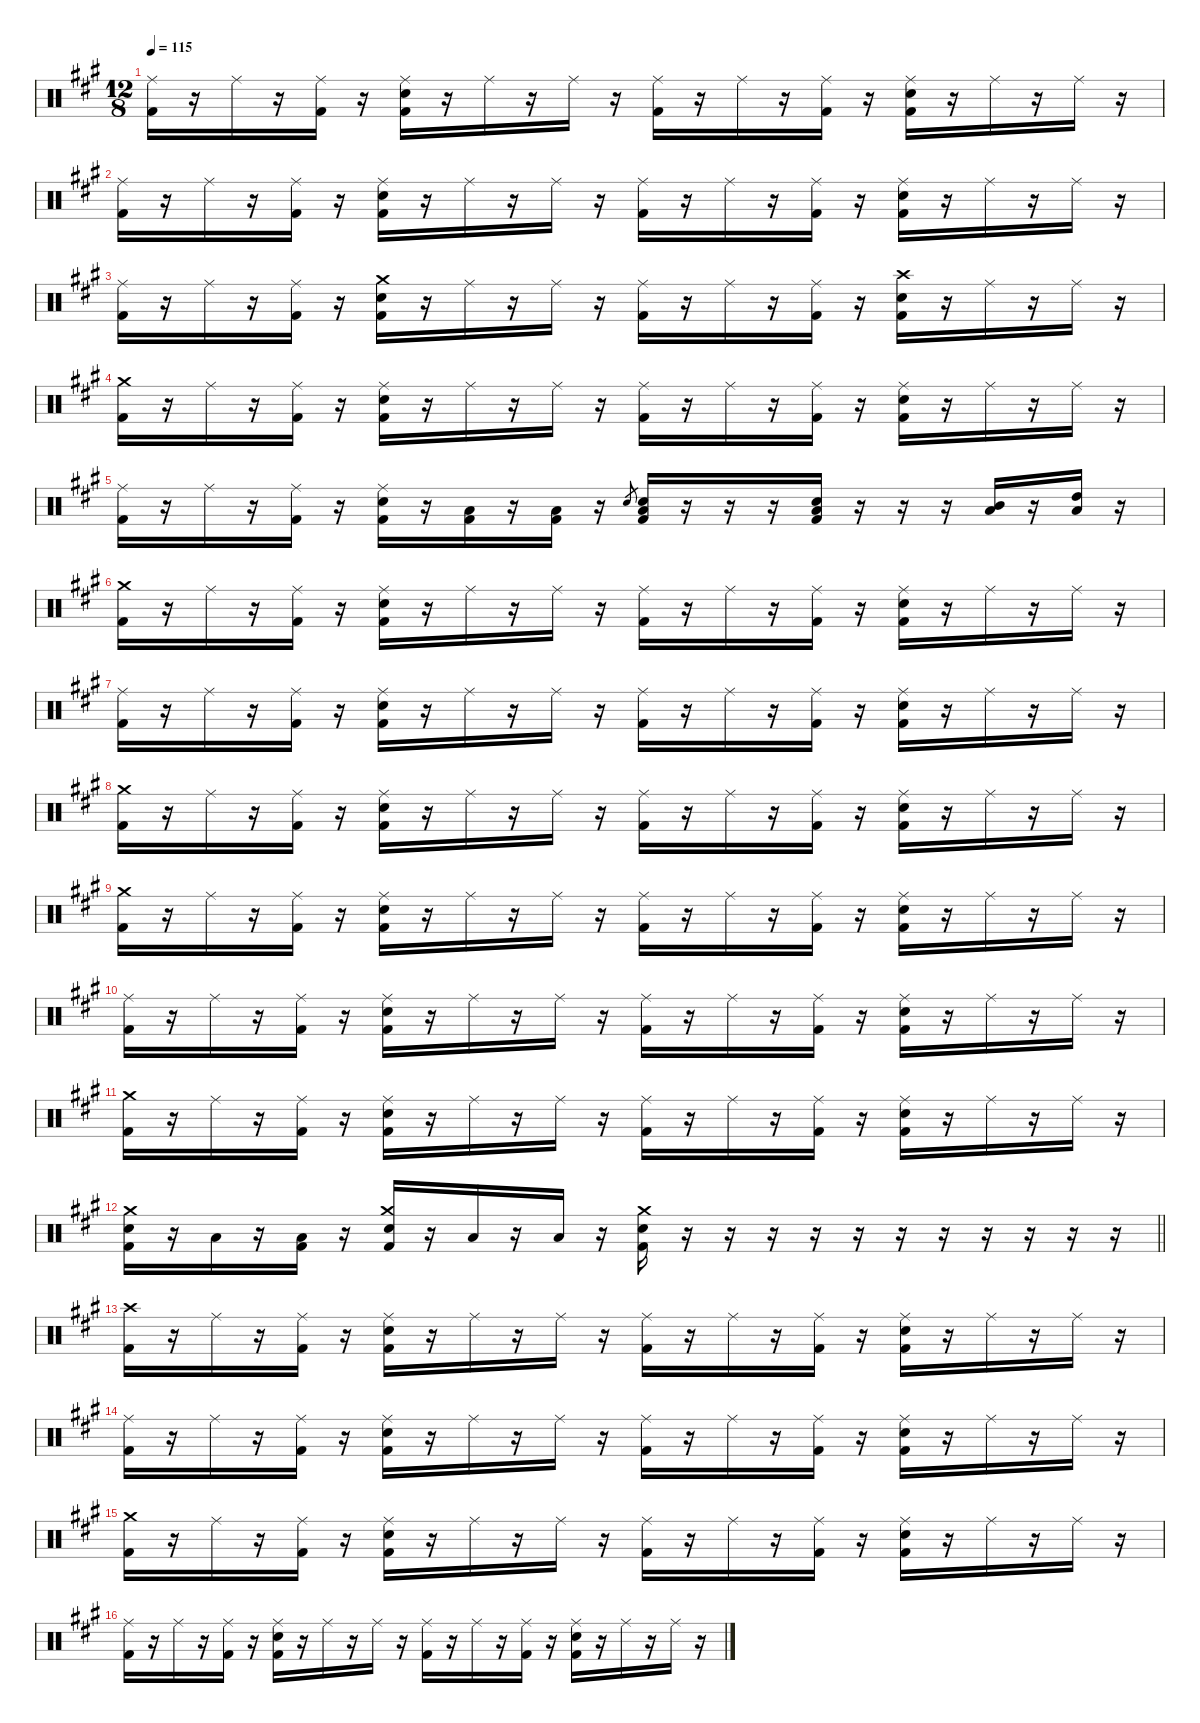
\defaultSystemsLayout 4
\hideDynamics
\bracketExtendMode nobrackets
\singleTrackTrackNamePolicy hidden
\multiTrackTrackNamePolicy hidden
\firstSystemTrackNameMode fullname
\otherSystemsTrackNameOrientation horizontal
\track ("DRUMS" "drm.") {instrument percussion}
\staff {score}
\articulation defaults
\ts (12 8)
\tempo 115
\clef neutral
\ks a
("Ride (middle)"{acc forcenatural} "Kick (hit) 2"{acc forcenatural}).16{dy f beam Down} r.16{beam Down} "Ride (middle)"{acc forcenatural}.16{dy ff beam Down} r.16{beam Down} ("Ride (middle)"{acc forcenatural} "Kick (hit) 2"{acc forcenatural}).16{beam Down} r.16{beam Down} ("Ride (middle)"{acc forcenatural} "Snare (hit) 2"{acc forcenatural} "Kick (hit) 2"{acc forcenatural}).16{dy f beam Down} r.16{beam Down} "Ride (middle)"{acc forcenatural}.16{dy ff beam Down} r.16{beam Down} "Ride (middle)"{acc forcenatural}.16{beam Down} r.16{beam Down} ("Ride (middle)"{acc forcenatural} "Kick (hit) 2"{acc forcenatural}).16{dy f beam Down} r.16{beam Down} "Ride (middle)"{acc forcenatural}.16{dy ff beam Down} r.16{beam Down} ("Ride (middle)"{acc forcenatural} "Kick (hit) 2"{acc forcenatural}).16{beam Down} r.16{beam Down} ("Ride (middle)"{acc forcenatural} "Snare (hit) 2"{acc forcenatural} "Kick (hit) 2"{acc forcenatural}).16{dy f beam Down} r.16{beam Down} "Ride (middle)"{acc forcenatural}.16{dy ff beam Down} r.16{beam Down} "Ride (middle)"{acc forcenatural}.16{beam Down} r.16{beam Down} |
("Ride (middle)"{acc forcenatural} "Kick (hit) 2"{acc forcenatural}).16{dy f beam Down} r.16{beam Down} "Ride (middle)"{acc forcenatural}.16{dy ff beam Down} r.16{beam Down} ("Ride (middle)"{acc forcenatural} "Kick (hit) 2"{acc forcenatural}).16{beam Down} r.16{beam Down} ("Ride (middle)"{acc forcenatural} "Snare (hit) 2"{acc forcenatural} "Kick (hit) 2"{acc forcenatural}).16{dy f beam Down} r.16{beam Down} "Ride (middle)"{acc forcenatural}.16{dy ff beam Down} r.16{beam Down} "Ride (middle)"{acc forcenatural}.16{beam Down} r.16{beam Down} ("Ride (middle)"{acc forcenatural} "Kick (hit) 2"{acc forcenatural}).16{dy f beam Down} r.16{beam Down} "Ride (middle)"{acc forcenatural}.16{dy ff beam Down} r.16{beam Down} ("Ride (middle)"{acc forcenatural} "Kick (hit) 2"{acc forcenatural}).16{beam Down} r.16{beam Down} ("Ride (middle)"{acc forcenatural} "Snare (hit) 2"{acc forcenatural} "Kick (hit) 2"{acc forcenatural}).16{dy f beam Down} r.16{beam Down} "Ride (middle)"{acc forcenatural}.16{dy ff beam Down} r.16{beam Down} "Ride (middle)"{acc forcenatural}.16{beam Down} r.16{beam Down} |
("Ride (middle)"{acc forcenatural} "Kick (hit) 2"{acc forcenatural}).16{dy f beam Down} r.16{beam Down} "Ride (middle)"{acc forcenatural}.16{dy ff beam Down} r.16{beam Down} ("Ride (middle)"{acc forcenatural} "Kick (hit) 2"{acc forcenatural}).16{beam Down} r.16{beam Down} ("Crash medium (hit)"{acc forcenatural} "Snare (hit) 2"{acc forcenatural} "Kick (hit) 2"{acc forcenatural}).16{dy f beam Down} r.16{beam Down} "Ride (middle)"{acc forcenatural}.16{dy ff beam Down} r.16{beam Down} "Ride (middle)"{acc forcenatural}.16{beam Down} r.16{beam Down} ("Ride (middle)"{acc forcenatural} "Kick (hit) 2"{acc forcenatural}).16{dy f beam Down} r.16{beam Down} "Ride (middle)"{acc forcenatural}.16{dy ff beam Down} r.16{beam Down} ("Ride (middle)"{acc forcenatural} "Kick (hit) 2"{acc forcenatural}).16{beam Down} r.16{beam Down} ("Crash high (hit)"{acc forcenatural} "Snare (hit) 2"{acc forcenatural} "Kick (hit) 2"{acc forcenatural}).16{dy f beam Down} r.16{beam Down} "Ride (middle)"{acc forcenatural}.16{dy ff beam Down} r.16{beam Down} "Ride (middle)"{acc forcenatural}.16{beam Down} r.16{beam Down} |
("Crash medium (hit)"{acc forcenatural} "Kick (hit) 2"{acc forcenatural}).16{dy f beam Down} r.16{beam Down} "Ride (middle)"{acc forcenatural}.16{dy ff beam Down} r.16{beam Down} ("Ride (middle)"{acc forcenatural} "Kick (hit) 2"{acc forcenatural}).16{beam Down} r.16{beam Down} ("Ride (middle)"{acc forcenatural} "Snare (hit) 2"{acc forcenatural} "Kick (hit) 2"{acc forcenatural}).16{dy f beam Down} r.16{beam Down} "Ride (middle)"{acc forcenatural}.16{dy ff beam Down} r.16{beam Down} "Ride (middle)"{acc forcenatural}.16{beam Down} r.16{beam Down} ("Ride (middle)"{acc forcenatural} "Kick (hit) 2"{acc forcenatural}).16{dy f beam Down} r.16{beam Down} "Ride (middle)"{acc forcenatural}.16{dy ff beam Down} r.16{beam Down} ("Ride (middle)"{acc forcenatural} "Kick (hit) 2"{acc forcenatural}).16{beam Down} r.16{beam Down} ("Ride (middle)"{acc forcenatural} "Snare (hit) 2"{acc forcenatural} "Kick (hit) 2"{acc forcenatural}).16{dy f beam Down} r.16{beam Down} "Ride (middle)"{acc forcenatural}.16{dy ff beam Down} r.16{beam Down} "Ride (middle)"{acc forcenatural}.16{beam Down} r.16{beam Down} |
("Ride (middle)"{acc forcenatural} "Kick (hit) 2"{acc forcenatural}).16{dy f beam Down} r.16{beam Down} "Ride (middle)"{acc forcenatural}.16{dy ff beam Down} r.16{beam Down} ("Ride (middle)"{acc forcenatural} "Kick (hit) 2"{acc forcenatural}).16{beam Down} r.16{beam Down} ("Ride (middle)"{acc forcenatural} "Snare (hit) 2"{acc forcenatural} "Kick (hit) 2"{acc forcenatural}).16{dy f beam Down} r.16{beam Down} ("Low Tom (hit)"{acc forcenatural} "Kick (hit) 2"{acc forcenatural}).16{dy ff beam Down} r.16{beam Down} ("Low Tom (hit)"{acc forcenatural} "Kick (hit) 2"{acc forcenatural}).16{beam Down} r.16{beam Down} "Electric Snare (hit)"{acc forcenatural}.8{gr dy f beam Up} ("Low Tom (hit)"{acc forcenatural} "Snare (hit) 2"{acc forcenatural} "Kick (hit) 2"{acc forcenatural}).16{beam Up} r.16{beam Up} r.16{beam Up} r.16{beam Up} ("Low Tom (hit)"{acc forcenatural} "Snare (hit) 2"{acc forcenatural} "Kick (hit) 2"{acc forcenatural}).16{dy ff beam Up} r.16{beam Up} r.16{beam Up} r.16{beam Up} ("Low Tom (hit)"{acc forcenatural} "Mid Tom (hit)"{acc forcenatural}).16{beam Down} r.16{beam Down} ("Low Tom (hit)"{acc forcenatural} "High Tom (hit)"{acc forcenatural}).16{beam Down} r.16{beam Down} |
("Crash medium (hit)"{acc forcenatural} "Kick (hit) 2"{acc forcenatural}).16{dy f beam Down} r.16{beam Down} "Ride (middle)"{acc forcenatural}.16{dy ff beam Down} r.16{beam Down} ("Ride (middle)"{acc forcenatural} "Kick (hit) 2"{acc forcenatural}).16{beam Down} r.16{beam Down} ("Ride (middle)"{acc forcenatural} "Snare (hit) 2"{acc forcenatural} "Kick (hit) 2"{acc forcenatural}).16{dy f beam Down} r.16{beam Down} "Ride (middle)"{acc forcenatural}.16{dy ff beam Down} r.16{beam Down} "Ride (middle)"{acc forcenatural}.16{beam Down} r.16{beam Down} ("Ride (middle)"{acc forcenatural} "Kick (hit) 2"{acc forcenatural}).16{dy f beam Down} r.16{beam Down} "Ride (middle)"{acc forcenatural}.16{dy ff beam Down} r.16{beam Down} ("Ride (middle)"{acc forcenatural} "Kick (hit) 2"{acc forcenatural}).16{beam Down} r.16{beam Down} ("Ride (middle)"{acc forcenatural} "Snare (hit) 2"{acc forcenatural} "Kick (hit) 2"{acc forcenatural}).16{dy f beam Down} r.16{beam Down} "Ride (middle)"{acc forcenatural}.16{dy ff beam Down} r.16{beam Down} "Ride (middle)"{acc forcenatural}.16{beam Down} r.16{beam Down} |
("Ride (middle)"{acc forcenatural} "Kick (hit) 2"{acc forcenatural}).16{dy f beam Down} r.16{beam Down} "Ride (middle)"{acc forcenatural}.16{dy ff beam Down} r.16{beam Down} ("Ride (middle)"{acc forcenatural} "Kick (hit) 2"{acc forcenatural}).16{beam Down} r.16{beam Down} ("Ride (middle)"{acc forcenatural} "Snare (hit) 2"{acc forcenatural} "Kick (hit) 2"{acc forcenatural}).16{dy f beam Down} r.16{beam Down} "Ride (middle)"{acc forcenatural}.16{dy ff beam Down} r.16{beam Down} "Ride (middle)"{acc forcenatural}.16{beam Down} r.16{beam Down} ("Ride (middle)"{acc forcenatural} "Kick (hit) 2"{acc forcenatural}).16{dy f beam Down} r.16{beam Down} "Ride (middle)"{acc forcenatural}.16{dy ff beam Down} r.16{beam Down} ("Ride (middle)"{acc forcenatural} "Kick (hit) 2"{acc forcenatural}).16{beam Down} r.16{beam Down} ("Ride (middle)"{acc forcenatural} "Snare (hit) 2"{acc forcenatural} "Kick (hit) 2"{acc forcenatural}).16{dy f beam Down} r.16{beam Down} "Ride (middle)"{acc forcenatural}.16{dy ff beam Down} r.16{beam Down} "Ride (middle)"{acc forcenatural}.16{beam Down} r.16{beam Down} |
("Crash medium (hit)"{acc forcenatural} "Kick (hit) 2"{acc forcenatural}).16{dy f beam Down} r.16{beam Down} "Ride (middle)"{acc forcenatural}.16{dy ff beam Down} r.16{beam Down} ("Ride (middle)"{acc forcenatural} "Kick (hit) 2"{acc forcenatural}).16{beam Down} r.16{beam Down} ("Ride (middle)"{acc forcenatural} "Snare (hit) 2"{acc forcenatural} "Kick (hit) 2"{acc forcenatural}).16{dy f beam Down} r.16{beam Down} "Ride (middle)"{acc forcenatural}.16{dy ff beam Down} r.16{beam Down} "Ride (middle)"{acc forcenatural}.16{beam Down} r.16{beam Down} ("Ride (middle)"{acc forcenatural} "Kick (hit) 2"{acc forcenatural}).16{dy f beam Down} r.16{beam Down} "Ride (middle)"{acc forcenatural}.16{dy ff beam Down} r.16{beam Down} ("Ride (middle)"{acc forcenatural} "Kick (hit) 2"{acc forcenatural}).16{beam Down} r.16{beam Down} ("Ride (middle)"{acc forcenatural} "Snare (hit) 2"{acc forcenatural} "Kick (hit) 2"{acc forcenatural}).16{dy f beam Down} r.16{beam Down} "Ride (middle)"{acc forcenatural}.16{dy ff beam Down} r.16{beam Down} "Ride (middle)"{acc forcenatural}.16{beam Down} r.16{beam Down} |
("Crash medium (hit)"{acc forcenatural} "Kick (hit) 2"{acc forcenatural}).16{dy f beam Down} r.16{beam Down} "Ride (middle)"{acc forcenatural}.16{dy ff beam Down} r.16{beam Down} ("Ride (middle)"{acc forcenatural} "Kick (hit) 2"{acc forcenatural}).16{beam Down} r.16{beam Down} ("Ride (middle)"{acc forcenatural} "Snare (hit) 2"{acc forcenatural} "Kick (hit) 2"{acc forcenatural}).16{dy f beam Down} r.16{beam Down} "Ride (middle)"{acc forcenatural}.16{dy ff beam Down} r.16{beam Down} "Ride (middle)"{acc forcenatural}.16{beam Down} r.16{beam Down} ("Ride (middle)"{acc forcenatural} "Kick (hit) 2"{acc forcenatural}).16{dy f beam Down} r.16{beam Down} "Ride (middle)"{acc forcenatural}.16{dy ff beam Down} r.16{beam Down} ("Ride (middle)"{acc forcenatural} "Kick (hit) 2"{acc forcenatural}).16{beam Down} r.16{beam Down} ("Ride (middle)"{acc forcenatural} "Snare (hit) 2"{acc forcenatural} "Kick (hit) 2"{acc forcenatural}).16{dy f beam Down} r.16{beam Down} "Ride (middle)"{acc forcenatural}.16{dy ff beam Down} r.16{beam Down} "Ride (middle)"{acc forcenatural}.16{beam Down} r.16{beam Down} |
("Ride (middle)"{acc forcenatural} "Kick (hit) 2"{acc forcenatural}).16{dy f beam Down} r.16{beam Down} "Ride (middle)"{acc forcenatural}.16{dy ff beam Down} r.16{beam Down} ("Ride (middle)"{acc forcenatural} "Kick (hit) 2"{acc forcenatural}).16{beam Down} r.16{beam Down} ("Ride (middle)"{acc forcenatural} "Snare (hit) 2"{acc forcenatural} "Kick (hit) 2"{acc forcenatural}).16{dy f beam Down} r.16{beam Down} "Ride (middle)"{acc forcenatural}.16{dy ff beam Down} r.16{beam Down} "Ride (middle)"{acc forcenatural}.16{beam Down} r.16{beam Down} ("Ride (middle)"{acc forcenatural} "Kick (hit) 2"{acc forcenatural}).16{dy f beam Down} r.16{beam Down} "Ride (middle)"{acc forcenatural}.16{dy ff beam Down} r.16{beam Down} ("Ride (middle)"{acc forcenatural} "Kick (hit) 2"{acc forcenatural}).16{beam Down} r.16{beam Down} ("Ride (middle)"{acc forcenatural} "Snare (hit) 2"{acc forcenatural} "Kick (hit) 2"{acc forcenatural}).16{dy f beam Down} r.16{beam Down} "Ride (middle)"{acc forcenatural}.16{dy ff beam Down} r.16{beam Down} "Ride (middle)"{acc forcenatural}.16{beam Down} r.16{beam Down} |
("Crash medium (hit)"{acc forcenatural} "Kick (hit) 2"{acc forcenatural}).16{dy f beam Down} r.16{beam Down} "Ride (middle)"{acc forcenatural}.16{dy ff beam Down} r.16{beam Down} ("Ride (middle)"{acc forcenatural} "Kick (hit) 2"{acc forcenatural}).16{beam Down} r.16{beam Down} ("Ride (middle)"{acc forcenatural} "Snare (hit) 2"{acc forcenatural} "Kick (hit) 2"{acc forcenatural}).16{dy f beam Down} r.16{beam Down} "Ride (middle)"{acc forcenatural}.16{dy ff beam Down} r.16{beam Down} "Ride (middle)"{acc forcenatural}.16{beam Down} r.16{beam Down} ("Ride (middle)"{acc forcenatural} "Kick (hit) 2"{acc forcenatural}).16{dy f beam Down} r.16{beam Down} "Ride (middle)"{acc forcenatural}.16{dy ff beam Down} r.16{beam Down} ("Ride (middle)"{acc forcenatural} "Kick (hit) 2"{acc forcenatural}).16{beam Down} r.16{beam Down} ("Ride (middle)"{acc forcenatural} "Snare (hit) 2"{acc forcenatural} "Kick (hit) 2"{acc forcenatural}).16{dy f beam Down} r.16{beam Down} "Ride (middle)"{acc forcenatural}.16{dy ff beam Down} r.16{beam Down} "Ride (middle)"{acc forcenatural}.16{beam Down} r.16{beam Down} |
\barLineRight lightlight
("Crash medium (hit)"{acc forcenatural} "Snare (hit) 2"{acc forcenatural} "Kick (hit) 2"{acc forcenatural}).16{dy f beam Down} r.16{beam Down} "Low Tom (hit)"{acc forcenatural}.16{dy ff beam Down} r.16{beam Down} ("Low Tom (hit)"{acc forcenatural} "Kick (hit) 2"{acc forcenatural}).16{beam Down} r.16{beam Down} ("Crash medium (hit)"{acc forcenatural} "Snare (hit) 2"{acc forcenatural} "Kick (hit) 2"{acc forcenatural}).16{dy f beam Up} r.16{beam Up} "Low Tom (hit)"{acc forcenatural}.16{dy ff beam Up} r.16{beam Up} "Low Tom (hit)"{acc forcenatural}.16{beam Up} r.16{beam Up} ("Crash medium (hit)"{acc forcenatural} "Snare (hit) 2"{acc forcenatural} "Kick (hit) 2"{acc forcenatural}).16{dy f beam Down} r.16{beam Down} r.16{beam Down} r.16{beam Down} r.16{beam Down} r.16{beam Down} r.16{beam Down} r.16{beam Down} r.16{beam Down} r.16{beam Down} r.16{beam Down} r.16{beam Down} |
("Crash high (hit)"{acc forcenatural} "Kick (hit) 2"{acc forcenatural}).16{beam Down} r.16{beam Down} "Ride (middle)"{acc forcenatural}.16{dy ff beam Down} r.16{beam Down} ("Ride (middle)"{acc forcenatural} "Kick (hit) 2"{acc forcenatural}).16{beam Down} r.16{beam Down} ("Ride (middle)"{acc forcenatural} "Snare (hit) 2"{acc forcenatural} "Kick (hit) 2"{acc forcenatural}).16{dy f beam Down} r.16{beam Down} "Ride (middle)"{acc forcenatural}.16{dy ff beam Down} r.16{beam Down} "Ride (middle)"{acc forcenatural}.16{beam Down} r.16{beam Down} ("Ride (middle)"{acc forcenatural} "Kick (hit) 2"{acc forcenatural}).16{dy f beam Down} r.16{beam Down} "Ride (middle)"{acc forcenatural}.16{dy ff beam Down} r.16{beam Down} ("Ride (middle)"{acc forcenatural} "Kick (hit) 2"{acc forcenatural}).16{beam Down} r.16{beam Down} ("Ride (middle)"{acc forcenatural} "Snare (hit) 2"{acc forcenatural} "Kick (hit) 2"{acc forcenatural}).16{dy f beam Down} r.16{beam Down} "Ride (middle)"{acc forcenatural}.16{dy ff beam Down} r.16{beam Down} "Ride (middle)"{acc forcenatural}.16{beam Down} r.16{beam Down} |
("Ride (middle)"{acc forcenatural} "Kick (hit) 2"{acc forcenatural}).16{dy f beam Down} r.16{beam Down} "Ride (middle)"{acc forcenatural}.16{dy ff beam Down} r.16{beam Down} ("Ride (middle)"{acc forcenatural} "Kick (hit) 2"{acc forcenatural}).16{beam Down} r.16{beam Down} ("Ride (middle)"{acc forcenatural} "Snare (hit) 2"{acc forcenatural} "Kick (hit) 2"{acc forcenatural}).16{dy f beam Down} r.16{beam Down} "Ride (middle)"{acc forcenatural}.16{dy ff beam Down} r.16{beam Down} "Ride (middle)"{acc forcenatural}.16{beam Down} r.16{beam Down} ("Ride (middle)"{acc forcenatural} "Kick (hit) 2"{acc forcenatural}).16{dy f beam Down} r.16{beam Down} "Ride (middle)"{acc forcenatural}.16{dy ff beam Down} r.16{beam Down} ("Ride (middle)"{acc forcenatural} "Kick (hit) 2"{acc forcenatural}).16{beam Down} r.16{beam Down} ("Ride (middle)"{acc forcenatural} "Snare (hit) 2"{acc forcenatural} "Kick (hit) 2"{acc forcenatural}).16{dy f beam Down} r.16{beam Down} "Ride (middle)"{acc forcenatural}.16{dy ff beam Down} r.16{beam Down} "Ride (middle)"{acc forcenatural}.16{beam Down} r.16{beam Down} |
("Crash medium (hit)"{acc forcenatural} "Kick (hit) 2"{acc forcenatural}).16{dy f beam Down} r.16{beam Down} "Ride (middle)"{acc forcenatural}.16{dy ff beam Down} r.16{beam Down} ("Ride (middle)"{acc forcenatural} "Kick (hit) 2"{acc forcenatural}).16{beam Down} r.16{beam Down} ("Ride (middle)"{acc forcenatural} "Snare (hit) 2"{acc forcenatural} "Kick (hit) 2"{acc forcenatural}).16{dy f beam Down} r.16{beam Down} "Ride (middle)"{acc forcenatural}.16{dy ff beam Down} r.16{beam Down} "Ride (middle)"{acc forcenatural}.16{beam Down} r.16{beam Down} ("Ride (middle)"{acc forcenatural} "Kick (hit) 2"{acc forcenatural}).16{dy f beam Down} r.16{beam Down} "Ride (middle)"{acc forcenatural}.16{dy ff beam Down} r.16{beam Down} ("Ride (middle)"{acc forcenatural} "Kick (hit) 2"{acc forcenatural}).16{beam Down} r.16{beam Down} ("Ride (middle)"{acc forcenatural} "Snare (hit) 2"{acc forcenatural} "Kick (hit) 2"{acc forcenatural}).16{dy f beam Down} r.16{beam Down} "Ride (middle)"{acc forcenatural}.16{dy ff beam Down} r.16{beam Down} "Ride (middle)"{acc forcenatural}.16{beam Down} r.16{beam Down} |
("Ride (middle)"{acc forcenatural} "Kick (hit) 2"{acc forcenatural}).16{dy f beam Down} r.16{beam Down} "Ride (middle)"{acc forcenatural}.16{dy ff beam Down} r.16{beam Down} ("Ride (middle)"{acc forcenatural} "Kick (hit) 2"{acc forcenatural}).16{beam Down} r.16{beam Down} ("Ride (middle)"{acc forcenatural} "Snare (hit) 2"{acc forcenatural} "Kick (hit) 2"{acc forcenatural}).16{dy f beam Down} r.16{beam Down} "Ride (middle)"{acc forcenatural}.16{dy ff beam Down} r.16{beam Down} "Ride (middle)"{acc forcenatural}.16{beam Down} r.16{beam Down} ("Ride (middle)"{acc forcenatural} "Kick (hit) 2"{acc forcenatural}).16{dy f beam Down} r.16{beam Down} "Ride (middle)"{acc forcenatural}.16{dy ff beam Down} r.16{beam Down} ("Ride (middle)"{acc forcenatural} "Kick (hit) 2"{acc forcenatural}).16{beam Down} r.16{beam Down} ("Ride (middle)"{acc forcenatural} "Snare (hit) 2"{acc forcenatural} "Kick (hit) 2"{acc forcenatural}).16{dy f beam Down} r.16{beam Down} "Ride (middle)"{acc forcenatural}.16{dy ff beam Down} r.16{beam Down} "Ride (middle)"{acc forcenatural}.16{beam Down} r.16{beam Down}
